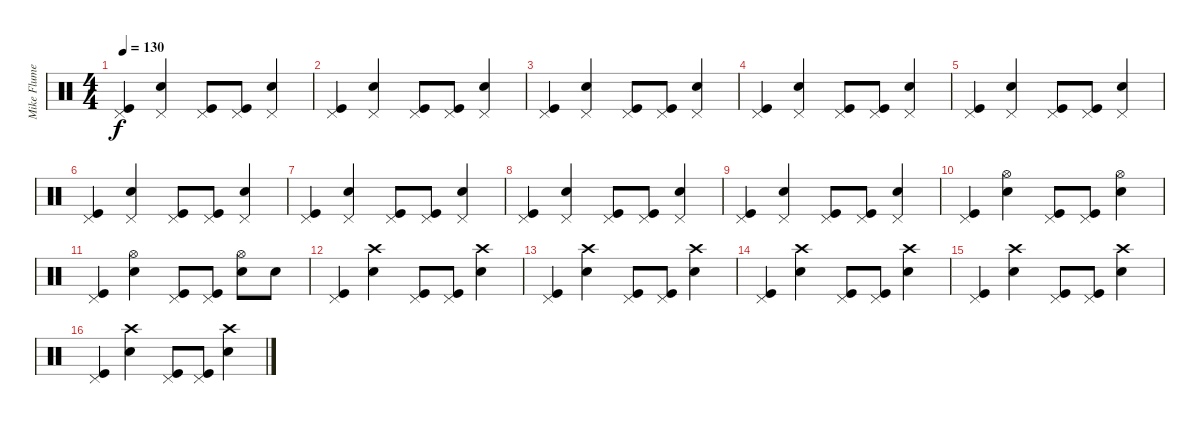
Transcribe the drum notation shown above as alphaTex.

\track ("Mike Flumee" "Mike Flume") {instrument percussion}
\staff {score}
\articulation defaults
\ts (4 4)
\tempo 130
\clef neutral
\ks c
("Pedal Hi-Hat (hit)" "Kick (hit)").4{dy f} ("Pedal Hi-Hat (hit)" "Electric Snare (hit)").4 ("Pedal Hi-Hat (hit)" "Kick (hit)").8 ("Pedal Hi-Hat (hit)" "Kick (hit)").8 ("Pedal Hi-Hat (hit)" "Electric Snare (hit)").4 |
("Pedal Hi-Hat (hit)" "Kick (hit)").4 ("Pedal Hi-Hat (hit)" "Electric Snare (hit)").4 ("Pedal Hi-Hat (hit)" "Kick (hit)").8 ("Pedal Hi-Hat (hit)" "Kick (hit)").8 ("Pedal Hi-Hat (hit)" "Electric Snare (hit)").4 |
("Pedal Hi-Hat (hit)" "Kick (hit)").4 ("Pedal Hi-Hat (hit)" "Electric Snare (hit)").4 ("Pedal Hi-Hat (hit)" "Kick (hit)").8 ("Pedal Hi-Hat (hit)" "Kick (hit)").8 ("Pedal Hi-Hat (hit)" "Electric Snare (hit)").4 |
("Pedal Hi-Hat (hit)" "Kick (hit)").4 ("Pedal Hi-Hat (hit)" "Electric Snare (hit)").4 ("Pedal Hi-Hat (hit)" "Kick (hit)").8 ("Pedal Hi-Hat (hit)" "Kick (hit)").8 ("Pedal Hi-Hat (hit)" "Electric Snare (hit)").4 |
("Pedal Hi-Hat (hit)" "Kick (hit)").4 ("Pedal Hi-Hat (hit)" "Electric Snare (hit)").4 ("Pedal Hi-Hat (hit)" "Kick (hit)").8 ("Pedal Hi-Hat (hit)" "Kick (hit)").8 ("Pedal Hi-Hat (hit)" "Electric Snare (hit)").4 |
("Pedal Hi-Hat (hit)" "Kick (hit)").4 ("Pedal Hi-Hat (hit)" "Electric Snare (hit)").4 ("Pedal Hi-Hat (hit)" "Kick (hit)").8 ("Pedal Hi-Hat (hit)" "Kick (hit)").8 ("Pedal Hi-Hat (hit)" "Electric Snare (hit)").4 |
("Pedal Hi-Hat (hit)" "Kick (hit)").4 ("Pedal Hi-Hat (hit)" "Electric Snare (hit)").4 ("Pedal Hi-Hat (hit)" "Kick (hit)").8 ("Pedal Hi-Hat (hit)" "Kick (hit)").8 ("Pedal Hi-Hat (hit)" "Electric Snare (hit)").4 |
("Pedal Hi-Hat (hit)" "Kick (hit)").4 ("Pedal Hi-Hat (hit)" "Electric Snare (hit)").4 ("Pedal Hi-Hat (hit)" "Kick (hit)").8 ("Pedal Hi-Hat (hit)" "Kick (hit)").8 ("Pedal Hi-Hat (hit)" "Electric Snare (hit)").4 |
("Pedal Hi-Hat (hit)" "Kick (hit)").4 ("Pedal Hi-Hat (hit)" "Electric Snare (hit)").4 ("Pedal Hi-Hat (hit)" "Kick (hit)").8 ("Pedal Hi-Hat (hit)" "Kick (hit)").8 ("Pedal Hi-Hat (hit)" "Electric Snare (hit)").4 |
("Pedal Hi-Hat (hit)" "Kick (hit)").4 ("Hi-Hat (open)" "Electric Snare (hit)").4 ("Pedal Hi-Hat (hit)" "Kick (hit)").8 ("Pedal Hi-Hat (hit)" "Kick (hit)").8 ("Hi-Hat (open)" "Electric Snare (hit)").4 |
("Pedal Hi-Hat (hit)" "Kick (hit)").4 ("Hi-Hat (open)" "Electric Snare (hit)").4 ("Pedal Hi-Hat (hit)" "Kick (hit)").8 ("Pedal Hi-Hat (hit)" "Kick (hit)").8 ("Hi-Hat (open)" "Electric Snare (hit)").8 "Electric Snare (hit)".8 |
("Pedal Hi-Hat (hit)" "Kick (hit)").4 ("Crash high (hit)" "Electric Snare (hit)").4 ("Pedal Hi-Hat (hit)" "Kick (hit)").8 ("Pedal Hi-Hat (hit)" "Kick (hit)").8 ("Crash high (hit)" "Electric Snare (hit)").4 |
("Pedal Hi-Hat (hit)" "Kick (hit)").4 ("Crash high (hit)" "Electric Snare (hit)").4 ("Pedal Hi-Hat (hit)" "Kick (hit)").8 ("Pedal Hi-Hat (hit)" "Kick (hit)").8 ("Crash high (hit)" "Electric Snare (hit)").4 |
("Pedal Hi-Hat (hit)" "Kick (hit)").4 ("Crash high (hit)" "Electric Snare (hit)").4 ("Pedal Hi-Hat (hit)" "Kick (hit)").8 ("Pedal Hi-Hat (hit)" "Kick (hit)").8 ("Crash high (hit)" "Electric Snare (hit)").4 |
("Pedal Hi-Hat (hit)" "Kick (hit)").4 ("Crash high (hit)" "Electric Snare (hit)").4 ("Pedal Hi-Hat (hit)" "Kick (hit)").8 ("Pedal Hi-Hat (hit)" "Kick (hit)").8 ("Crash high (hit)" "Electric Snare (hit)").4 |
("Pedal Hi-Hat (hit)" "Kick (hit)").4 ("Crash high (hit)" "Electric Snare (hit)").4 ("Pedal Hi-Hat (hit)" "Kick (hit)").8 ("Pedal Hi-Hat (hit)" "Kick (hit)").8 ("Crash high (hit)" "Electric Snare (hit)").4
